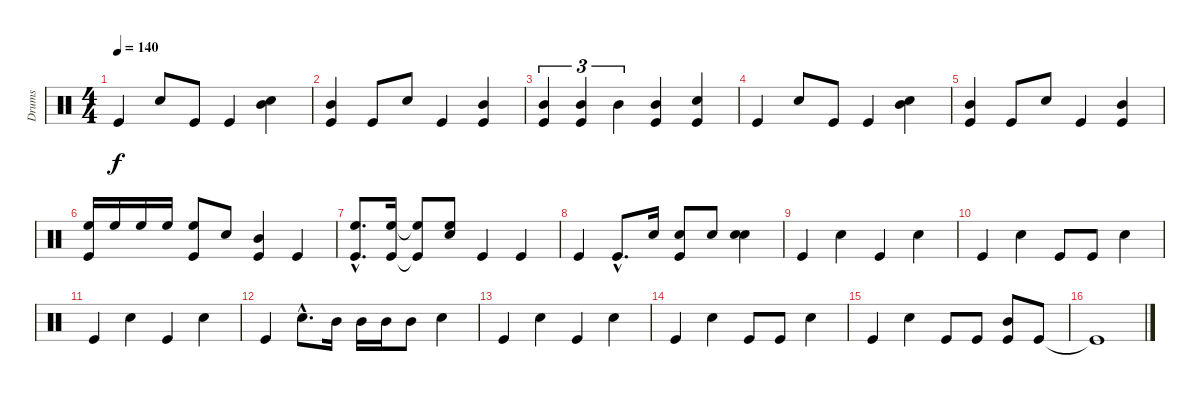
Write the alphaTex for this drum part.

\track ("Drums" "Drums") {instrument percussion}
\staff {score}
\articulation defaults
\ts (4 4)
\tempo 140
\clef neutral
\ks c "Kick (hit)".4{dy f} "Snare (hit) 2".8 "Kick (hit)".8 "Kick (hit)".4
("Snare (hit) 2" "Mid Tom (hit)").4 |
("Kick (hit)" "Mid Tom (hit)").4 "Kick (hit)".8 "Snare (hit) 2".8 "Kick (hit)".4 ("Kick (hit)" "Mid Tom (hit)").4 |
("Kick (hit)" "Mid Tom (hit)").4{tu (3 2)} ("Kick (hit)" "Mid Tom (hit)").4{tu (3 2)} "Mid Tom (hit)".4{tu (3 2)} ("Kick (hit)" "Mid Tom (hit)").4 ("Kick (hit)" "Snare (hit) 2").4 |
"Kick (hit)".4 "Snare (hit) 2".8 "Kick (hit)".8 "Kick (hit)".4 ("Snare (hit) 2" "Mid Tom (hit)").4 |
("Kick (hit)" "Mid Tom (hit)").4 "Kick (hit)".8 "Snare (hit) 2".8 "Kick (hit)".4 ("Kick (hit)" "Mid Tom (hit)").4 |
("Kick (hit)" "High Floor Tom (hit)").16 "High Floor Tom (hit)".16 "High Floor Tom (hit)".16 "High Floor Tom (hit)".16 ("Kick (hit)" "High Floor Tom (hit)").8 "Snare (hit) 2".8 ("Kick (hit)" "Mid Tom (hit)").4 "Kick (hit)".4 |
("Kick (hit)"{hac} "High Floor Tom (hit)"{hac}).8{d} ("Kick (hit)" "High Floor Tom (hit)").16 ("Kick (hit)"{t} "High Floor Tom (hit)"{t}).8 ("Snare (hit) 2" "High Floor Tom (hit)").8 "Kick (hit)".4 "Kick (hit)".4 |
"Kick (hit)".4 "Kick (hit)"{hac}.8{d} "Snare (hit) 2".16 ("Kick (hit)" "Snare (hit) 2").8 "Snare (hit) 2".8 ("Snare (hit) 2" "Snare (hit) 2").4 |
"Kick (hit)".4 "Snare (hit) 2".4 "Kick (hit)".4 "Snare (hit) 2".4 |
"Kick (hit)".4 "Snare (hit) 2".4 "Kick (hit)".8 "Kick (hit)".8 "Snare (hit) 2".4 |
"Kick (hit)".4 "Snare (hit) 2".4 "Kick (hit)".4 "Snare (hit) 2".4 |
"Kick (hit)".4 "Snare (hit) 2"{hac}.8{d} "Mid Tom (hit)".16 "Mid Tom (hit)".16 "Mid Tom (hit)".16 "Mid Tom (hit)".8 "Snare (hit) 2".4 |
"Kick (hit)".4 "Snare (hit) 2".4 "Kick (hit)".4 "Snare (hit) 2".4 |
"Kick (hit)".4 "Snare (hit) 2".4 "Kick (hit)".8 "Kick (hit)".8 "Snare (hit) 2".4 |
"Kick (hit)".4 "Snare (hit) 2".4 "Kick (hit)".8 "Kick (hit)".8 ("Kick (hit)" "Mid Tom (hit)").8 "Kick (hit)".8 |
"Kick (hit)"{t}.1
